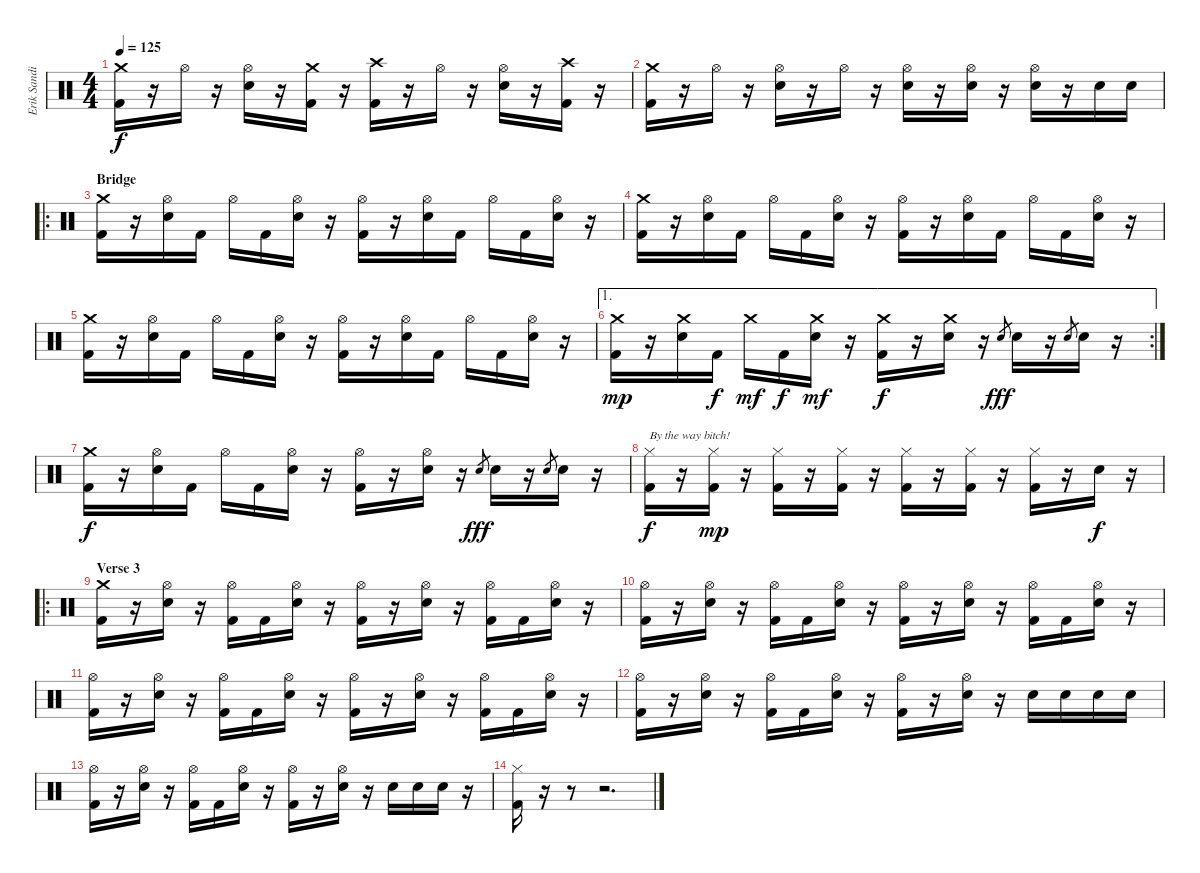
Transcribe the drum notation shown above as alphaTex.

\track ("Erik Sandin" "Erik Sandi") {instrument percussion}
\staff {score}
\articulation defaults
\ts (4 4)
\tempo 125
\clef neutral
\ks c
("Crash medium (hit)" "Kick (hit) 2").16{dy f} r.16 "Hi-Hat (open)".16 r.16 ("Hi-Hat (open)" "Snare (hit) 2").16 r.16 ("Crash medium (hit)" "Kick (hit) 2").16 r.16 ("Crash high (hit)" "Kick (hit) 2").16 r.16 "Hi-Hat (open)".16 r.16 ("Hi-Hat (open)" "Snare (hit) 2").16 r.16 ("Crash high (hit)" "Kick (hit) 2").16 r.16 |
("Crash medium (hit)" "Kick (hit) 2").16 r.16 "Hi-Hat (open)".16 r.16 ("Hi-Hat (open)" "Snare (hit) 2").16 r.16 "Hi-Hat (open)".16 r.16 ("Hi-Hat (open)" "Snare (hit) 2").16 r.16 ("Hi-Hat (open)" "Snare (hit) 2").16 r.16 ("Hi-Hat (open)" "Snare (hit) 2").16 r.16 "Snare (hit) 2".16 "Snare (hit) 2".16 |
\ro
\section ("" "Bridge")
("Crash medium (hit)" "Kick (hit) 2").16 r.16 ("Hi-Hat (open)" "Snare (hit) 2").16 "Kick (hit) 2".16 "Hi-Hat (open)".16 "Kick (hit) 2".16 ("Hi-Hat (open)" "Snare (hit) 2").16 r.16 ("Hi-Hat (open)" "Kick (hit) 2").16 r.16 ("Hi-Hat (open)" "Snare (hit) 2").16 "Kick (hit) 2".16 "Hi-Hat (open)".16 "Kick (hit) 2".16 ("Hi-Hat (open)" "Snare (hit) 2").16 r.16 |
("Crash medium (hit)" "Kick (hit) 2").16 r.16 ("Hi-Hat (open)" "Snare (hit) 2").16 "Kick (hit) 2".16 "Hi-Hat (open)".16 "Kick (hit) 2".16 ("Hi-Hat (open)" "Snare (hit) 2").16 r.16 ("Hi-Hat (open)" "Kick (hit) 2").16 r.16 ("Hi-Hat (open)" "Snare (hit) 2").16 "Kick (hit) 2".16 "Hi-Hat (open)".16 "Kick (hit) 2".16 ("Hi-Hat (open)" "Snare (hit) 2").16 r.16 |
("Crash medium (hit)" "Kick (hit) 2").16 r.16 ("Hi-Hat (open)" "Snare (hit) 2").16 "Kick (hit) 2".16 "Hi-Hat (open)".16 "Kick (hit) 2".16 ("Hi-Hat (open)" "Snare (hit) 2").16 r.16 ("Hi-Hat (open)" "Kick (hit) 2").16 r.16 ("Hi-Hat (open)" "Snare (hit) 2").16 "Kick (hit) 2".16 "Hi-Hat (open)".16 "Kick (hit) 2".16 ("Hi-Hat (open)" "Snare (hit) 2").16 r.16 |
\ae 1
\rc 2
("Crash medium (hit)" "Kick (hit) 2").16{dy mp} r.16 ("Crash medium (hit)" "Snare (hit) 2").16 "Kick (hit) 2".16{dy f} "Crash medium (hit)".16{dy mf} "Kick (hit) 2".16{dy f} ("Crash medium (hit)" "Snare (hit) 2").16{dy mf} r.16 ("Crash medium (hit)" "Kick (hit) 2").16{dy f} r.16 ("Crash medium (hit)" "Snare (hit) 2").16 r.16 "Snare (hit) 2".8{gr dy fff} "Snare (hit) 2".16 r.16 "Snare (hit) 2".8{gr} "Snare (hit) 2".16 r.16 |
("Crash medium (hit)" "Kick (hit) 2").16{dy f} r.16 ("Hi-Hat (open)" "Snare (hit) 2").16 "Kick (hit) 2".16 "Hi-Hat (open)".16 "Kick (hit) 2".16 ("Hi-Hat (open)" "Snare (hit) 2").16 r.16 ("Hi-Hat (open)" "Kick (hit) 2").16 r.16 ("Hi-Hat (open)" "Snare (hit) 2").16 r.16 "Snare (hit) 2".8{gr dy fff} "Snare (hit) 2".16 r.16 "Snare (hit) 2".8{gr} "Snare (hit) 2".16 r.16 |
("Hi-Hat (closed)" "Kick (hit) 2").16{txt "By the way bitch!" dy f} r.16 ("Hi-Hat (closed)" "Kick (hit) 2").16{dy mp} r.16 ("Hi-Hat (closed)" "Kick (hit) 2").16 r.16 ("Hi-Hat (closed)" "Kick (hit) 2").16 r.16 ("Hi-Hat (closed)" "Kick (hit) 2").16 r.16 ("Hi-Hat (closed)" "Kick (hit) 2").16 r.16 ("Hi-Hat (closed)" "Kick (hit) 2").16 r.16 "Snare (hit) 2".16{dy f} r.16 |
\ro
\section ("" "Verse 3")
("Crash medium (hit)" "Kick (hit) 2").16 r.16 ("Hi-Hat (open)" "Snare (hit) 2").16 r.16 ("Hi-Hat (open)" "Kick (hit) 2").16 "Kick (hit) 2".16 ("Hi-Hat (open)" "Snare (hit) 2").16 r.16 ("Hi-Hat (open)" "Kick (hit) 2").16 r.16 ("Hi-Hat (open)" "Snare (hit) 2").16 r.16 ("Hi-Hat (open)" "Kick (hit) 2").16 "Kick (hit) 2".16 ("Hi-Hat (open)" "Snare (hit) 2").16 r.16 |
("Hi-Hat (open)" "Kick (hit) 2").16 r.16 ("Hi-Hat (open)" "Snare (hit) 2").16 r.16 ("Hi-Hat (open)" "Kick (hit) 2").16 "Kick (hit) 2".16 ("Hi-Hat (open)" "Snare (hit) 2").16 r.16 ("Hi-Hat (open)" "Kick (hit) 2").16 r.16 ("Hi-Hat (open)" "Snare (hit) 2").16 r.16 ("Hi-Hat (open)" "Kick (hit) 2").16 "Kick (hit) 2".16 ("Hi-Hat (open)" "Snare (hit) 2").16 r.16 |
("Hi-Hat (open)" "Kick (hit) 2").16 r.16 ("Hi-Hat (open)" "Snare (hit) 2").16 r.16 ("Hi-Hat (open)" "Kick (hit) 2").16 "Kick (hit) 2".16 ("Hi-Hat (open)" "Snare (hit) 2").16 r.16 ("Hi-Hat (open)" "Kick (hit) 2").16 r.16 ("Hi-Hat (open)" "Snare (hit) 2").16 r.16 ("Hi-Hat (open)" "Kick (hit) 2").16 "Kick (hit) 2".16 ("Hi-Hat (open)" "Snare (hit) 2").16 r.16 |
("Hi-Hat (open)" "Kick (hit) 2").16 r.16 ("Hi-Hat (open)" "Snare (hit) 2").16 r.16 ("Hi-Hat (open)" "Kick (hit) 2").16 "Kick (hit) 2".16 ("Hi-Hat (open)" "Snare (hit) 2").16 r.16 ("Hi-Hat (open)" "Kick (hit) 2").16 r.16 ("Hi-Hat (open)" "Snare (hit) 2").16 r.16 "Snare (hit) 2".16 "Snare (hit) 2".16 "Snare (hit) 2".16 "Snare (hit) 2".16 |
("Hi-Hat (open)" "Kick (hit) 2").16 r.16 ("Hi-Hat (open)" "Snare (hit) 2").16 r.16 ("Hi-Hat (open)" "Kick (hit) 2").16 "Kick (hit) 2".16 ("Hi-Hat (open)" "Snare (hit) 2").16 r.16 ("Hi-Hat (open)" "Kick (hit) 2").16 r.16 ("Hi-Hat (open)" "Snare (hit) 2").16 r.16 "Snare (hit) 2".16 "Snare (hit) 2".16 "Snare (hit) 2".16 r.16 |
("Hi-Hat (closed)" "Kick (hit) 2").16 r.16 r.8 r.2{d}
